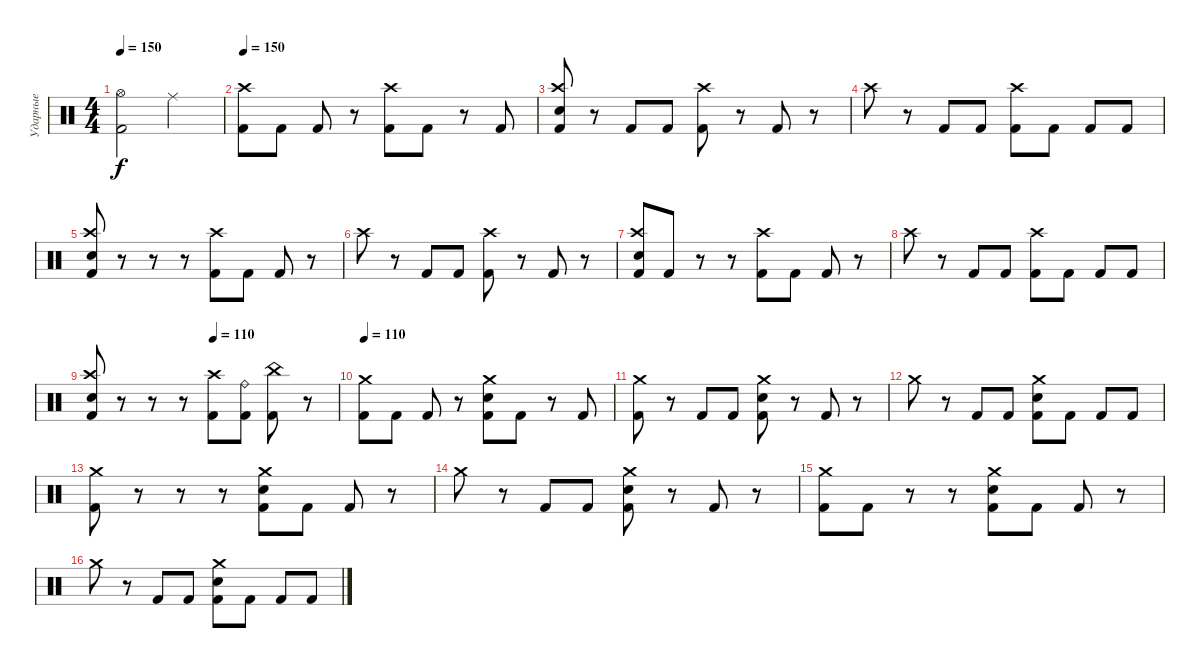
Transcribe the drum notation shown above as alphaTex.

\track ("Ударные" "Ударные") {instrument percussion}
\staff {score}
\articulation defaults
\ts (4 4)
\tempo 150
\clef neutral
\ks c
("Hi-Hat (open)" "Kick (hit) 2").2{dy f} "Ride (middle)".2 |
\tempo 150
("Crash high (hit)" "Kick (hit) 2").8 "Kick (hit) 2".8 "Kick (hit) 2".8 r.8 ("Crash high (hit)" "Kick (hit) 2").8 "Kick (hit) 2".8 r.8 "Kick (hit) 2".8 |
("Crash high (hit)" "Electric Snare (hit)" "Kick (hit) 2").8 r.8 "Kick (hit) 2".8 "Kick (hit) 2".8 ("Crash high (hit)" "Kick (hit) 2").8 r.8 "Kick (hit) 2".8 r.8 |
"Crash high (hit)".8 r.8 "Kick (hit) 2".8 "Kick (hit) 2".8 ("Crash high (hit)" "Kick (hit) 2").8 "Kick (hit) 2".8 "Kick (hit) 2".8 "Kick (hit) 2".8 |
("Crash high (hit)" "Electric Snare (hit)" "Kick (hit) 2").8 r.8 r.8 r.8 ("Crash high (hit)" "Kick (hit) 2").8 "Kick (hit) 2".8 "Kick (hit) 2".8 r.8 |
"Crash high (hit)".8 r.8 "Kick (hit) 2".8 "Kick (hit) 2".8 ("Crash high (hit)" "Kick (hit) 2").8 r.8 "Kick (hit) 2".8 r.8 |
("Crash high (hit)" "Electric Snare (hit)" "Kick (hit) 2").8 "Kick (hit) 2".8 r.8 r.8 ("Crash high (hit)" "Kick (hit) 2").8 "Kick (hit) 2".8 "Kick (hit) 2".8 r.8 |
"Crash high (hit)".8 r.8 "Kick (hit) 2".8 "Kick (hit) 2".8 ("Crash high (hit)" "Kick (hit) 2").8 "Kick (hit) 2".8 "Kick (hit) 2".8 "Kick (hit) 2".8 |
\tempo (110 0.5)
("Crash high (hit)" "Electric Snare (hit)" "Kick (hit) 2").8 r.8 r.8 r.8 ("Crash high (hit)" "Kick (hit) 2").8 ("Ride (bell)" "Kick (hit) 2").8 ("China (hit)" "Kick (hit) 2").8 r.8 |
\tempo 110
("Crash medium (hit)" "Kick (hit) 2").8 "Kick (hit) 2".8 "Kick (hit) 2".8 r.8 ("Crash medium (hit)" "Electric Snare (hit)" "Kick (hit) 2").8 "Kick (hit) 2".8 r.8 "Kick (hit) 2".8 |
("Crash medium (hit)" "Kick (hit) 2").8 r.8 "Kick (hit) 2".8 "Kick (hit) 2".8 ("Crash medium (hit)" "Electric Snare (hit)" "Kick (hit) 2").8 r.8 "Kick (hit) 2".8 r.8 |
"Crash medium (hit)".8 r.8 "Kick (hit) 2".8 "Kick (hit) 2".8 ("Crash medium (hit)" "Electric Snare (hit)" "Kick (hit) 2").8 "Kick (hit) 2".8 "Kick (hit) 2".8 "Kick (hit) 2".8 |
("Crash medium (hit)" "Kick (hit) 2").8 r.8 r.8 r.8 ("Crash medium (hit)" "Electric Snare (hit)" "Kick (hit) 2").8 "Kick (hit) 2".8 "Kick (hit) 2".8 r.8 |
"Crash medium (hit)".8 r.8 "Kick (hit) 2".8 "Kick (hit) 2".8 ("Crash medium (hit)" "Electric Snare (hit)" "Kick (hit) 2").8 r.8 "Kick (hit) 2".8 r.8 |
("Crash medium (hit)" "Kick (hit) 2").8 "Kick (hit) 2".8 r.8 r.8 ("Crash medium (hit)" "Electric Snare (hit)" "Kick (hit) 2").8 "Kick (hit) 2".8 "Kick (hit) 2".8 r.8 |
"Crash medium (hit)".8 r.8 "Kick (hit) 2".8 "Kick (hit) 2".8 ("Crash medium (hit)" "Electric Snare (hit)" "Kick (hit) 2").8 "Kick (hit) 2".8 "Kick (hit) 2".8 "Kick (hit) 2".8
